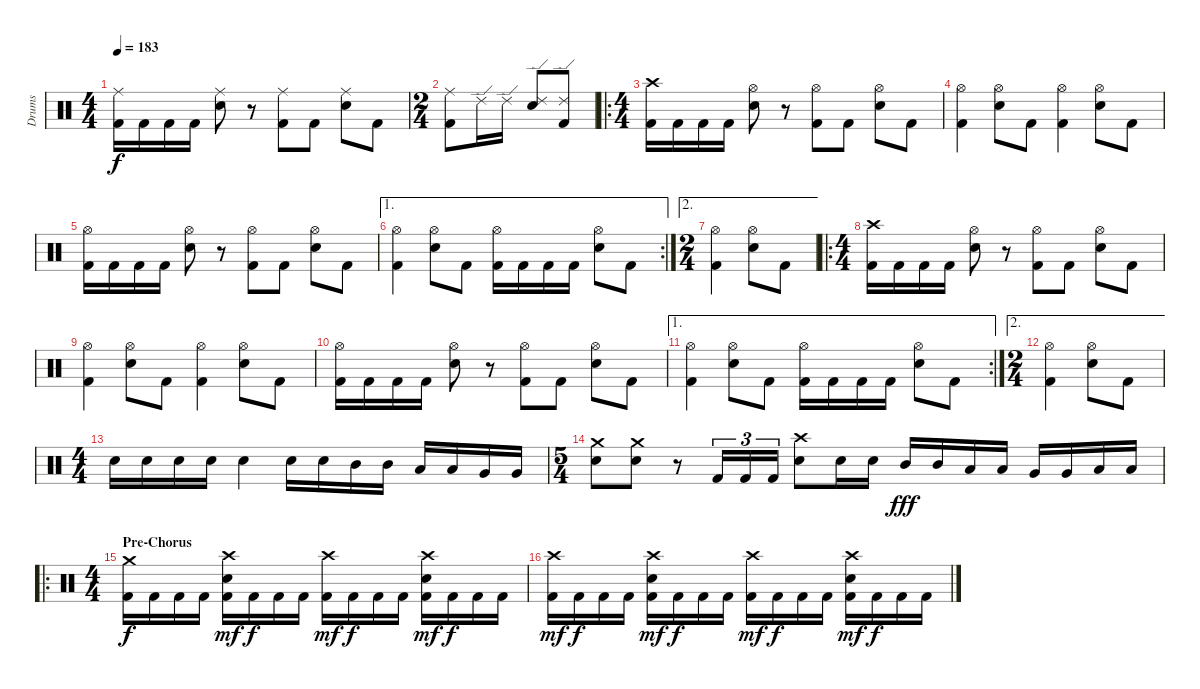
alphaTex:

\track ("Drums" "Drums") {instrument percussion}
\staff {score}
\articulation defaults
\ts (4 4)
\tempo 183
\clef neutral
\ks c
("Kick (hit) 2" "Ride (middle)").16{dy f} "Kick (hit) 2".16 "Kick (hit) 2".16 "Kick (hit) 2".16 ("Electric Snare (hit)" "Ride (middle)").8 r.8 ("Kick (hit) 2" "Ride (middle)").8 "Kick (hit) 2".8 ("Electric Snare (hit)" "Ride (middle)").8 "Kick (hit) 2".8 |
\ts (2 4)
("Kick (hit) 2" "Ride (middle)").8 "Ride (edge) 2".16 "Ride (edge) 2".16 ("Electric Snare (hit)" "Ride (edge) 2").8 ("Kick (hit) 2" "Ride (edge) 2").8 |
\ro
\ts (4 4)
("Kick (hit) 2" "Crash high (hit)").16 "Kick (hit) 2".16 "Kick (hit) 2".16 "Kick (hit) 2".16 ("Electric Snare (hit)" "Hi-Hat (open)").8 r.8 ("Kick (hit) 2" "Hi-Hat (open)").8 "Kick (hit) 2".8 ("Electric Snare (hit)" "Hi-Hat (open)").8 "Kick (hit) 2".8 |
("Kick (hit) 2" "Hi-Hat (open)").4 ("Electric Snare (hit)" "Hi-Hat (open)").8 "Kick (hit) 2".8 ("Kick (hit) 2" "Hi-Hat (open)").4 ("Electric Snare (hit)" "Hi-Hat (open)").8 "Kick (hit) 2".8 |
("Kick (hit) 2" "Hi-Hat (open)").16 "Kick (hit) 2".16 "Kick (hit) 2".16 "Kick (hit) 2".16 ("Electric Snare (hit)" "Hi-Hat (open)").8 r.8 ("Kick (hit) 2" "Hi-Hat (open)").8 "Kick (hit) 2".8 ("Electric Snare (hit)" "Hi-Hat (open)").8 "Kick (hit) 2".8 |
\ae 1
\rc 2
("Kick (hit) 2" "Hi-Hat (open)").4 ("Electric Snare (hit)" "Hi-Hat (open)").8 "Kick (hit) 2".8 ("Kick (hit) 2" "Hi-Hat (open)").16 "Kick (hit) 2".16 "Kick (hit) 2".16 "Kick (hit) 2".16 ("Electric Snare (hit)" "Hi-Hat (open)").8 "Kick (hit) 2".8 |
\ae 2
\ts (2 4)
("Kick (hit) 2" "Hi-Hat (open)").4 ("Electric Snare (hit)" "Hi-Hat (open)").8 "Kick (hit) 2".8 |
\ro
\ts (4 4)
("Kick (hit) 2" "Crash high (hit)").16 "Kick (hit) 2".16 "Kick (hit) 2".16 "Kick (hit) 2".16 ("Electric Snare (hit)" "Hi-Hat (open)").8 r.8 ("Kick (hit) 2" "Hi-Hat (open)").8 "Kick (hit) 2".8 ("Electric Snare (hit)" "Hi-Hat (open)").8 "Kick (hit) 2".8 |
("Kick (hit) 2" "Hi-Hat (open)").4 ("Electric Snare (hit)" "Hi-Hat (open)").8 "Kick (hit) 2".8 ("Kick (hit) 2" "Hi-Hat (open)").4 ("Electric Snare (hit)" "Hi-Hat (open)").8 "Kick (hit) 2".8 |
("Kick (hit) 2" "Hi-Hat (open)").16 "Kick (hit) 2".16 "Kick (hit) 2".16 "Kick (hit) 2".16 ("Electric Snare (hit)" "Hi-Hat (open)").8 r.8 ("Kick (hit) 2" "Hi-Hat (open)").8 "Kick (hit) 2".8 ("Electric Snare (hit)" "Hi-Hat (open)").8 "Kick (hit) 2".8 |
\ae 1
\rc 2
("Kick (hit) 2" "Hi-Hat (open)").4 ("Electric Snare (hit)" "Hi-Hat (open)").8 "Kick (hit) 2".8 ("Kick (hit) 2" "Hi-Hat (open)").16 "Kick (hit) 2".16 "Kick (hit) 2".16 "Kick (hit) 2".16 ("Electric Snare (hit)" "Hi-Hat (open)").8 "Kick (hit) 2".8 |
\ae 2
\ts (2 4)
("Kick (hit) 2" "Hi-Hat (open)").4 ("Electric Snare (hit)" "Hi-Hat (open)").8 "Kick (hit) 2".8 |
\ts (4 4)
"Electric Snare (hit)".16 "Electric Snare (hit)".16 "Electric Snare (hit)".16 "Electric Snare (hit)".16 "Electric Snare (hit)".4 "Electric Snare (hit)".16 "Electric Snare (hit)".16 "Mid Tom (hit)".16 "Mid Tom (hit)".16 "Low Tom (hit)".16 "Low Tom (hit)".16 "Very Low Tom (hit)".16 "Very Low Tom (hit)".16 |
\ts (5 4)
("Electric Snare (hit)" "Crash medium (hit)").8 ("Electric Snare (hit)" "Crash medium (hit)").8 r.8 "Kick (hit) 2".16{tu (3 2)} "Kick (hit) 2".16{tu (3 2)} "Kick (hit) 2".16{tu (3 2)} ("Electric Snare (hit)" "Crash high (hit)").8 "Electric Snare (hit)".16 "Electric Snare (hit)".16 "Mid Tom (hit)".16{dy fff} "Mid Tom (hit)".16 "Low Tom (hit)".16 "Low Tom (hit)".16 "Very Low Tom (hit)".16 "Very Low Tom (hit)".16 "Low Floor Tom (hit)".16 "Low Floor Tom (hit)".16 |
\ro
\ts (4 4)
\section ("" "Pre-Chorus")
("Kick (hit) 2" "Crash medium (hit)").16{dy f} "Kick (hit) 2".16 "Kick (hit) 2".16 "Kick (hit) 2".16 ("Kick (hit) 2" "Electric Snare (hit)" "Crash high (hit)").16{dy mf} "Kick (hit) 2".16{dy f} "Kick (hit) 2".16 "Kick (hit) 2".16 ("Kick (hit) 2" "Crash high (hit)").16{dy mf} "Kick (hit) 2".16{dy f} "Kick (hit) 2".16 "Kick (hit) 2".16 ("Kick (hit) 2" "Electric Snare (hit)" "Crash high (hit)").16{dy mf} "Kick (hit) 2".16{dy f} "Kick (hit) 2".16 "Kick (hit) 2".16 |
("Kick (hit) 2" "Crash high (hit)").16{dy mf} "Kick (hit) 2".16{dy f} "Kick (hit) 2".16 "Kick (hit) 2".16 ("Kick (hit) 2" "Electric Snare (hit)" "Crash high (hit)").16{dy mf} "Kick (hit) 2".16{dy f} "Kick (hit) 2".16 "Kick (hit) 2".16 ("Kick (hit) 2" "Crash high (hit)").16{dy mf} "Kick (hit) 2".16{dy f} "Kick (hit) 2".16 "Kick (hit) 2".16 ("Kick (hit) 2" "Electric Snare (hit)" "Crash high (hit)").16{dy mf} "Kick (hit) 2".16{dy f} "Kick (hit) 2".16 "Kick (hit) 2".16
